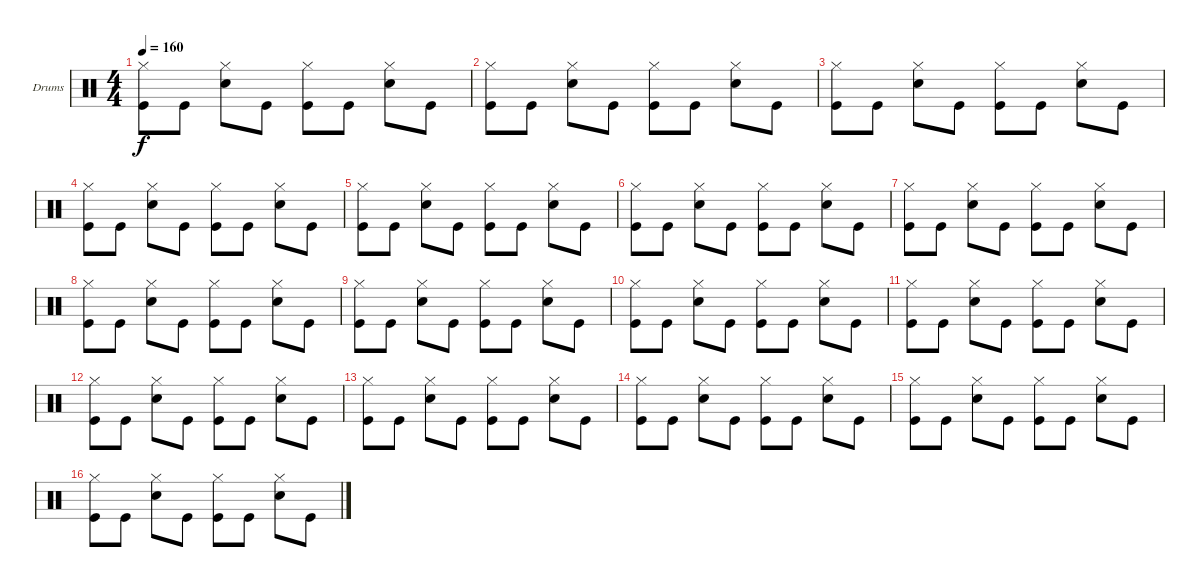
\defaultSystemsLayout 4
\bracketExtendMode groupsimilarinstruments
\firstSystemTrackNameOrientation horizontal
\otherSystemsTrackNameOrientation horizontal
\track ("Drums" "Drums") {instrument percussion}
\staff {score}
\articulation defaults
\ts (4 4)
\tempo 160
\clef neutral
\scale
0.311475
\ks aminor
("Kick (hit)" "Hi-Hat (closed)").8{dy f} "Kick (hit)".8 ("Snare (hit) 2" "Hi-Hat (closed)").8 "Kick (hit)".8 ("Kick (hit)" "Hi-Hat (closed)").8 "Kick (hit)".8 ("Snare (hit) 2" "Hi-Hat (closed)").8 "Kick (hit)".8 |
\scale
0.311475 ("Kick (hit)" "Hi-Hat (closed)").8 "Kick (hit)".8 ("Snare (hit) 2" "Hi-Hat (closed)").8 "Kick (hit)".8 ("Kick (hit)" "Hi-Hat (closed)").8 "Kick (hit)".8 ("Snare (hit) 2" "Hi-Hat (closed)").8 "Kick (hit)".8 |
\scale
0.333333 ("Kick (hit)" "Hi-Hat (closed)").8 "Kick (hit)".8 ("Snare (hit) 2" "Hi-Hat (closed)").8 "Kick (hit)".8 ("Kick (hit)" "Hi-Hat (closed)").8 "Kick (hit)".8 ("Snare (hit) 2" "Hi-Hat (closed)").8 "Kick (hit)".8 |
\scale
0.333333 ("Kick (hit)" "Hi-Hat (closed)").8 "Kick (hit)".8 ("Snare (hit) 2" "Hi-Hat (closed)").8 "Kick (hit)".8 ("Kick (hit)" "Hi-Hat (closed)").8 "Kick (hit)".8 ("Snare (hit) 2" "Hi-Hat (closed)").8 "Kick (hit)".8 |
\scale
0.333333 ("Kick (hit)" "Hi-Hat (closed)").8 "Kick (hit)".8 ("Snare (hit) 2" "Hi-Hat (closed)").8 "Kick (hit)".8 ("Kick (hit)" "Hi-Hat (closed)").8 "Kick (hit)".8 ("Snare (hit) 2" "Hi-Hat (closed)").8 "Kick (hit)".8 |
\scale
0.322034 ("Kick (hit)" "Hi-Hat (closed)").8 "Kick (hit)".8 ("Snare (hit) 2" "Hi-Hat (closed)").8 "Kick (hit)".8 ("Kick (hit)" "Hi-Hat (closed)").8 "Kick (hit)".8 ("Snare (hit) 2" "Hi-Hat (closed)").8 "Kick (hit)".8 |
\scale
0.355932 ("Kick (hit)" "Hi-Hat (closed)").8 "Kick (hit)".8 ("Snare (hit) 2" "Hi-Hat (closed)").8 "Kick (hit)".8 ("Kick (hit)" "Hi-Hat (closed)").8 "Kick (hit)".8 ("Snare (hit) 2" "Hi-Hat (closed)").8 "Kick (hit)".8 |
("Kick (hit)" "Hi-Hat (closed)").8 "Kick (hit)".8 ("Snare (hit) 2" "Hi-Hat (closed)").8 "Kick (hit)".8 ("Kick (hit)" "Hi-Hat (closed)").8 "Kick (hit)".8 ("Snare (hit) 2" "Hi-Hat (closed)").8 "Kick (hit)".8 |
("Kick (hit)" "Hi-Hat (closed)").8 "Kick (hit)".8 ("Snare (hit) 2" "Hi-Hat (closed)").8 "Kick (hit)".8 ("Kick (hit)" "Hi-Hat (closed)").8 "Kick (hit)".8 ("Snare (hit) 2" "Hi-Hat (closed)").8 "Kick (hit)".8 |
("Kick (hit)" "Hi-Hat (closed)").8 "Kick (hit)".8 ("Snare (hit) 2" "Hi-Hat (closed)").8 "Kick (hit)".8 ("Kick (hit)" "Hi-Hat (closed)").8 "Kick (hit)".8 ("Snare (hit) 2" "Hi-Hat (closed)").8 "Kick (hit)".8 |
("Kick (hit)" "Hi-Hat (closed)").8 "Kick (hit)".8 ("Snare (hit) 2" "Hi-Hat (closed)").8 "Kick (hit)".8 ("Kick (hit)" "Hi-Hat (closed)").8 "Kick (hit)".8 ("Snare (hit) 2" "Hi-Hat (closed)").8 "Kick (hit)".8 |
("Kick (hit)" "Hi-Hat (closed)").8 "Kick (hit)".8 ("Snare (hit) 2" "Hi-Hat (closed)").8 "Kick (hit)".8 ("Kick (hit)" "Hi-Hat (closed)").8 "Kick (hit)".8 ("Snare (hit) 2" "Hi-Hat (closed)").8 "Kick (hit)".8 |
("Kick (hit)" "Hi-Hat (closed)").8 "Kick (hit)".8 ("Snare (hit) 2" "Hi-Hat (closed)").8 "Kick (hit)".8 ("Kick (hit)" "Hi-Hat (closed)").8 "Kick (hit)".8 ("Snare (hit) 2" "Hi-Hat (closed)").8 "Kick (hit)".8 |
("Kick (hit)" "Hi-Hat (closed)").8 "Kick (hit)".8 ("Snare (hit) 2" "Hi-Hat (closed)").8 "Kick (hit)".8 ("Kick (hit)" "Hi-Hat (closed)").8 "Kick (hit)".8 ("Snare (hit) 2" "Hi-Hat (closed)").8 "Kick (hit)".8 |
("Kick (hit)" "Hi-Hat (closed)").8 "Kick (hit)".8 ("Snare (hit) 2" "Hi-Hat (closed)").8 "Kick (hit)".8 ("Kick (hit)" "Hi-Hat (closed)").8 "Kick (hit)".8 ("Snare (hit) 2" "Hi-Hat (closed)").8 "Kick (hit)".8 |
\scale
0.322034 ("Kick (hit)" "Hi-Hat (closed)").8 "Kick (hit)".8 ("Snare (hit) 2" "Hi-Hat (closed)").8 "Kick (hit)".8 ("Kick (hit)" "Hi-Hat (closed)").8 "Kick (hit)".8 ("Snare (hit) 2" "Hi-Hat (closed)").8 "Kick (hit)".8
